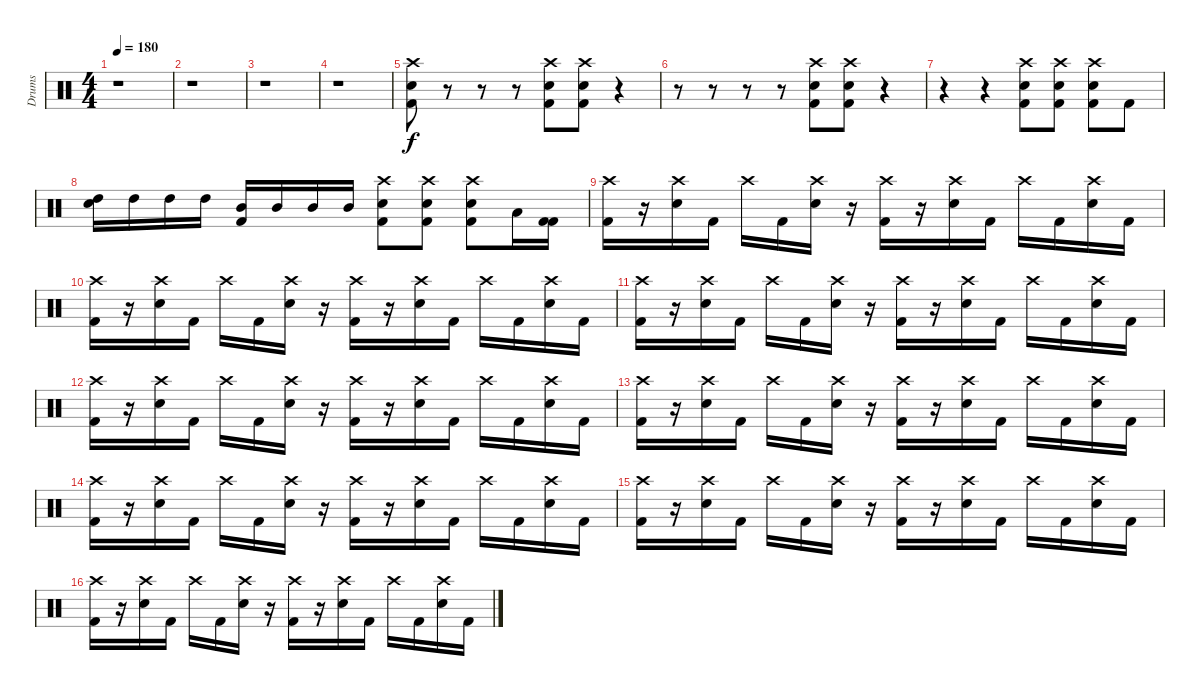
\track ("Drums" "Drums") {instrument percussion}
\staff {score}
\articulation defaults
\ts (4 4)
\tempo 180
\clef neutral
\ks c
r.1{dy f} |
r.1 |
r.1 |
r.1 |
("Crash high (hit)" "Electric Snare (hit)" "Kick (hit) 2").8 r.8 r.8 r.8 ("Crash high (hit)" "Electric Snare (hit)" "Kick (hit) 2").8 ("Crash high (hit)" "Electric Snare (hit)" "Kick (hit) 2").8 r.4 |
r.8 r.8 r.8 r.8 ("Crash high (hit)" "Electric Snare (hit)" "Kick (hit) 2").8 ("Crash high (hit)" "Electric Snare (hit)" "Kick (hit) 2").8 r.4 |
r.4 r.4 ("Crash high (hit)" "Electric Snare (hit)" "Kick (hit) 2").8 ("Crash high (hit)" "Electric Snare (hit)" "Kick (hit) 2").8 ("Crash high (hit)" "Electric Snare (hit)" "Kick (hit) 2").8 "Kick (hit) 2".8 |
("Electric Snare (hit)" "High Tom (hit)").16 "High Tom (hit)".16 "High Tom (hit)".16 "High Tom (hit)".16 ("Mid Tom (hit)" "Kick (hit) 2").16 "Mid Tom (hit)".16 "Mid Tom (hit)".16 "Mid Tom (hit)".16 ("Crash high (hit)" "Electric Snare (hit)" "Kick (hit) 2").8 ("Crash high (hit)" "Electric Snare (hit)" "Kick (hit) 2").8 ("Crash high (hit)" "Electric Snare (hit)" "Kick (hit) 2").8 "Low Tom (hit)".16 ("Kick (hit) 2" "Kick (hit) 2").16 |
("Crash high (hit)" "Kick (hit) 2").16 r.16 ("Crash high (hit)" "Electric Snare (hit)").16 "Kick (hit) 2".16 "Crash high (hit)".16 "Kick (hit) 2".16 ("Crash high (hit)" "Electric Snare (hit)").16 r.16 ("Crash high (hit)" "Kick (hit) 2").16 r.16 ("Crash high (hit)" "Electric Snare (hit)").16 "Kick (hit) 2".16 "Crash high (hit)".16 "Kick (hit) 2".16 ("Crash high (hit)" "Electric Snare (hit)").16 "Kick (hit) 2".16 |
("Crash high (hit)" "Kick (hit) 2").16 r.16 ("Crash high (hit)" "Electric Snare (hit)").16 "Kick (hit) 2".16 "Crash high (hit)".16 "Kick (hit) 2".16 ("Crash high (hit)" "Electric Snare (hit)").16 r.16 ("Crash high (hit)" "Kick (hit) 2").16 r.16 ("Crash high (hit)" "Electric Snare (hit)").16 "Kick (hit) 2".16 "Crash high (hit)".16 "Kick (hit) 2".16 ("Crash high (hit)" "Electric Snare (hit)").16 "Kick (hit) 2".16 |
("Crash high (hit)" "Kick (hit) 2").16 r.16 ("Crash high (hit)" "Electric Snare (hit)").16 "Kick (hit) 2".16 "Crash high (hit)".16 "Kick (hit) 2".16 ("Crash high (hit)" "Electric Snare (hit)").16 r.16 ("Crash high (hit)" "Kick (hit) 2").16 r.16 ("Crash high (hit)" "Electric Snare (hit)").16 "Kick (hit) 2".16 "Crash high (hit)".16 "Kick (hit) 2".16 ("Crash high (hit)" "Electric Snare (hit)").16 "Kick (hit) 2".16 |
("Crash high (hit)" "Kick (hit) 2").16 r.16 ("Crash high (hit)" "Electric Snare (hit)").16 "Kick (hit) 2".16 "Crash high (hit)".16 "Kick (hit) 2".16 ("Crash high (hit)" "Electric Snare (hit)").16 r.16 ("Crash high (hit)" "Kick (hit) 2").16 r.16 ("Crash high (hit)" "Electric Snare (hit)").16 "Kick (hit) 2".16 "Crash high (hit)".16 "Kick (hit) 2".16 ("Crash high (hit)" "Electric Snare (hit)").16 "Kick (hit) 2".16 |
("Crash high (hit)" "Kick (hit) 2").16 r.16 ("Crash high (hit)" "Electric Snare (hit)").16 "Kick (hit) 2".16 "Crash high (hit)".16 "Kick (hit) 2".16 ("Crash high (hit)" "Electric Snare (hit)").16 r.16 ("Crash high (hit)" "Kick (hit) 2").16 r.16 ("Crash high (hit)" "Electric Snare (hit)").16 "Kick (hit) 2".16 "Crash high (hit)".16 "Kick (hit) 2".16 ("Crash high (hit)" "Electric Snare (hit)").16 "Kick (hit) 2".16 |
("Crash high (hit)" "Kick (hit) 2").16 r.16 ("Crash high (hit)" "Electric Snare (hit)").16 "Kick (hit) 2".16 "Crash high (hit)".16 "Kick (hit) 2".16 ("Crash high (hit)" "Electric Snare (hit)").16 r.16 ("Crash high (hit)" "Kick (hit) 2").16 r.16 ("Crash high (hit)" "Electric Snare (hit)").16 "Kick (hit) 2".16 "Crash high (hit)".16 "Kick (hit) 2".16 ("Crash high (hit)" "Electric Snare (hit)").16 "Kick (hit) 2".16 |
("Crash high (hit)" "Kick (hit) 2").16 r.16 ("Crash high (hit)" "Electric Snare (hit)").16 "Kick (hit) 2".16 "Crash high (hit)".16 "Kick (hit) 2".16 ("Crash high (hit)" "Electric Snare (hit)").16 r.16 ("Crash high (hit)" "Kick (hit) 2").16 r.16 ("Crash high (hit)" "Electric Snare (hit)").16 "Kick (hit) 2".16 "Crash high (hit)".16 "Kick (hit) 2".16 ("Crash high (hit)" "Electric Snare (hit)").16 "Kick (hit) 2".16 |
("Crash high (hit)" "Kick (hit) 2").16 r.16 ("Crash high (hit)" "Electric Snare (hit)").16 "Kick (hit) 2".16 "Crash high (hit)".16 "Kick (hit) 2".16 ("Crash high (hit)" "Electric Snare (hit)").16 r.16 ("Crash high (hit)" "Kick (hit) 2").16 r.16 ("Crash high (hit)" "Electric Snare (hit)").16 "Kick (hit) 2".16 "Crash high (hit)".16 "Kick (hit) 2".16 ("Crash high (hit)" "Electric Snare (hit)").16 "Kick (hit) 2".16
